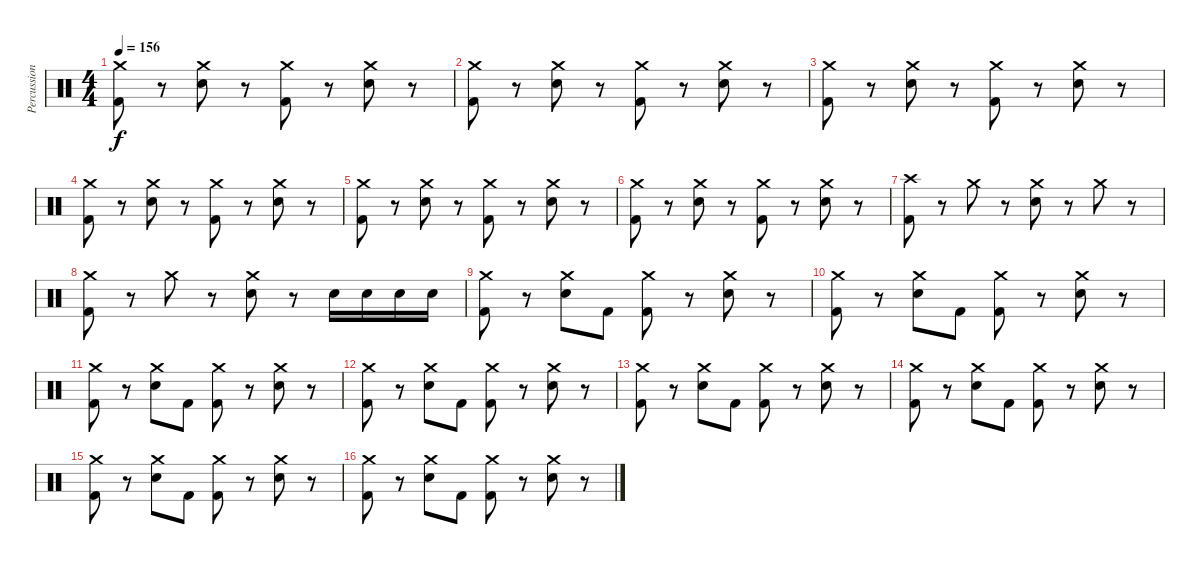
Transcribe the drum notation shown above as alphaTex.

\track ("Percussions" "Percussion") {instrument percussion}
\staff {score}
\articulation defaults
\ts (4 4)
\tempo 156
\clef neutral
\ks c
("Crash medium (hit)" "Kick (hit) 2").8{dy f} r.8 ("Crash medium (hit)" "Electric Snare (hit)").8 r.8 ("Crash medium (hit)" "Kick (hit) 2").8 r.8 ("Crash medium (hit)" "Electric Snare (hit)").8 r.8 |
("Crash medium (hit)" "Kick (hit) 2").8 r.8 ("Crash medium (hit)" "Electric Snare (hit)").8 r.8 ("Crash medium (hit)" "Kick (hit) 2").8 r.8 ("Crash medium (hit)" "Electric Snare (hit)").8 r.8 |
("Crash medium (hit)" "Kick (hit) 2").8 r.8 ("Crash medium (hit)" "Electric Snare (hit)").8 r.8 ("Crash medium (hit)" "Kick (hit) 2").8 r.8 ("Crash medium (hit)" "Electric Snare (hit)").8 r.8 |
("Crash medium (hit)" "Kick (hit) 2").8 r.8 ("Crash medium (hit)" "Electric Snare (hit)").8 r.8 ("Crash medium (hit)" "Kick (hit) 2").8 r.8 ("Crash medium (hit)" "Electric Snare (hit)").8 r.8 |
("Crash medium (hit)" "Kick (hit) 2").8 r.8 ("Crash medium (hit)" "Electric Snare (hit)").8 r.8 ("Crash medium (hit)" "Kick (hit) 2").8 r.8 ("Crash medium (hit)" "Electric Snare (hit)").8 r.8 |
("Crash medium (hit)" "Kick (hit) 2").8 r.8 ("Crash medium (hit)" "Electric Snare (hit)").8 r.8 ("Crash medium (hit)" "Kick (hit) 2").8 r.8 ("Crash medium (hit)" "Electric Snare (hit)").8 r.8 |
("Crash high (hit)" "Kick (hit) 2").8 r.8 "Crash medium (hit)".8 r.8 ("Crash medium (hit)" "Electric Snare (hit)").8 r.8 "Crash medium (hit)".8 r.8 |
("Crash medium (hit)" "Kick (hit) 2").8 r.8 "Crash medium (hit)".8 r.8 ("Crash medium (hit)" "Electric Snare (hit)").8 r.8 "Electric Snare (hit)".16 "Electric Snare (hit)".16 "Electric Snare (hit)".16 "Electric Snare (hit)".16 |
("Crash medium (hit)" "Kick (hit) 2").8 r.8 ("Crash medium (hit)" "Electric Snare (hit)").8 "Kick (hit) 2".8 ("Crash medium (hit)" "Kick (hit) 2").8 r.8 ("Crash medium (hit)" "Electric Snare (hit)").8 r.8 |
("Crash medium (hit)" "Kick (hit) 2").8 r.8 ("Crash medium (hit)" "Electric Snare (hit)").8 "Kick (hit) 2".8 ("Crash medium (hit)" "Kick (hit) 2").8 r.8 ("Crash medium (hit)" "Electric Snare (hit)").8 r.8 |
("Crash medium (hit)" "Kick (hit) 2").8 r.8 ("Crash medium (hit)" "Electric Snare (hit)").8 "Kick (hit) 2".8 ("Crash medium (hit)" "Kick (hit) 2").8 r.8 ("Crash medium (hit)" "Electric Snare (hit)").8 r.8 |
("Crash medium (hit)" "Kick (hit) 2").8 r.8 ("Crash medium (hit)" "Electric Snare (hit)").8 "Kick (hit) 2".8 ("Crash medium (hit)" "Kick (hit) 2").8 r.8 ("Crash medium (hit)" "Electric Snare (hit)").8 r.8 |
("Crash medium (hit)" "Kick (hit) 2").8 r.8 ("Crash medium (hit)" "Electric Snare (hit)").8 "Kick (hit) 2".8 ("Crash medium (hit)" "Kick (hit) 2").8 r.8 ("Crash medium (hit)" "Electric Snare (hit)").8 r.8 |
("Crash medium (hit)" "Kick (hit) 2").8 r.8 ("Crash medium (hit)" "Electric Snare (hit)").8 "Kick (hit) 2".8 ("Crash medium (hit)" "Kick (hit) 2").8 r.8 ("Crash medium (hit)" "Electric Snare (hit)").8 r.8 |
("Crash medium (hit)" "Kick (hit) 2").8 r.8 ("Crash medium (hit)" "Electric Snare (hit)").8 "Kick (hit) 2".8 ("Crash medium (hit)" "Kick (hit) 2").8 r.8 ("Crash medium (hit)" "Electric Snare (hit)").8 r.8 |
("Crash medium (hit)" "Kick (hit) 2").8 r.8 ("Crash medium (hit)" "Electric Snare (hit)").8 "Kick (hit) 2".8 ("Crash medium (hit)" "Kick (hit) 2").8 r.8 ("Crash medium (hit)" "Electric Snare (hit)").8 r.8
